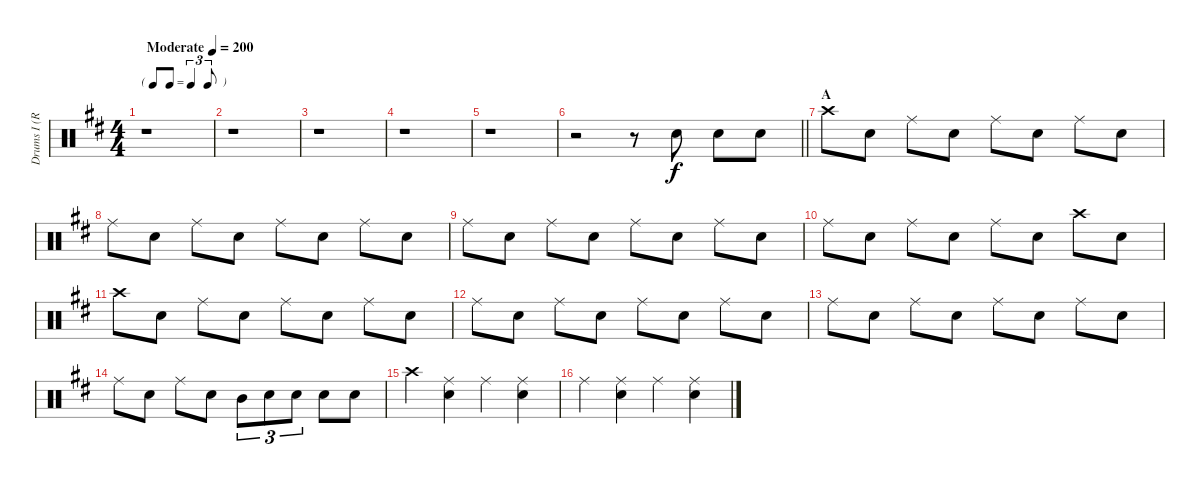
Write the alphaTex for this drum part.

\track ("Drums I (Ruka)" "Drums I (R") {instrument percussion}
\staff {score}
\articulation defaults
\ts (4 4)
\tf triplet8th
\tempo (200 "Moderate")
\clef neutral
\ks d
r.1{dy f} |
r.1 |
r.1 |
r.1 |
r.1 |
\barLineRight lightlight
r.2 r.8 "Snare (hit) 2".8 "Snare (hit) 2".8 "Snare (hit) 2".8 |
\section ("" "A")
"Crash high (hit)".8 "Snare (hit) 2".8 "Ride (middle)".8 "Snare (hit) 2".8 "Ride (middle)".8 "Snare (hit) 2".8 "Ride (middle)".8 "Snare (hit) 2".8 |
"Ride (middle)".8 "Snare (hit) 2".8 "Ride (middle)".8 "Snare (hit) 2".8 "Ride (middle)".8 "Snare (hit) 2".8 "Ride (middle)".8 "Snare (hit) 2".8 |
"Ride (middle)".8 "Snare (hit) 2".8 "Ride (middle)".8 "Snare (hit) 2".8 "Ride (middle)".8 "Snare (hit) 2".8 "Ride (middle)".8 "Snare (hit) 2".8 |
"Ride (middle)".8 "Snare (hit) 2".8 "Ride (middle)".8 "Snare (hit) 2".8 "Ride (middle)".8 "Snare (hit) 2".8 "Crash high (hit)".8 "Snare (hit) 2".8 |
"Crash high (hit)".8 "Snare (hit) 2".8 "Ride (middle)".8 "Snare (hit) 2".8 "Ride (middle)".8 "Snare (hit) 2".8 "Ride (middle)".8 "Snare (hit) 2".8 |
"Ride (middle)".8 "Snare (hit) 2".8 "Ride (middle)".8 "Snare (hit) 2".8 "Ride (middle)".8 "Snare (hit) 2".8 "Ride (middle)".8 "Snare (hit) 2".8 |
"Ride (middle)".8 "Snare (hit) 2".8 "Ride (middle)".8 "Snare (hit) 2".8 "Ride (middle)".8 "Snare (hit) 2".8 "Ride (middle)".8 "Snare (hit) 2".8 |
"Ride (middle)".8 "Snare (hit) 2".8 "Ride (middle)".8 "Snare (hit) 2".8 "Mid Tom (hit)".8{tu (3 2)} "Snare (hit) 2".8{tu (3 2)} "Snare (hit) 2".8{tu (3 2)} "Snare (hit) 2".8 "Snare (hit) 2".8 |
"Crash high (hit)".4 ("Ride (middle)" "Snare (hit) 2").4 "Ride (middle)".4 ("Ride (middle)" "Snare (hit) 2").4 |
"Ride (middle)".4 ("Ride (middle)" "Snare (hit) 2").4 "Ride (middle)".4 ("Ride (middle)" "Snare (hit) 2").4
